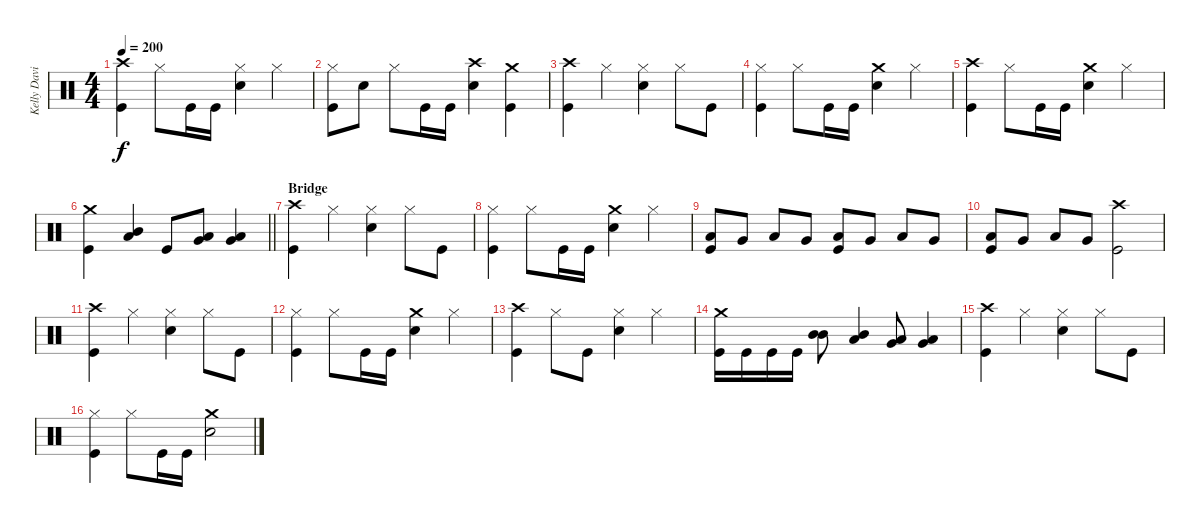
\track ("Kelly David Smith" "Kelly Davi") {instrument percussion}
\staff {score}
\articulation defaults
\ts (4 4)
\tempo 200
\clef neutral
\ks c
("Crash high (hit)" "Kick (hit)").4{dy f} "Hi-Hat (closed)".8 "Kick (hit)".16 "Kick (hit)".16 ("Hi-Hat (closed)" "Electric Snare (hit)").4 "Hi-Hat (closed)".4 |
("Hi-Hat (closed)" "Kick (hit)").8 "Electric Snare (hit)".8 "Hi-Hat (closed)".8 "Kick (hit)".16 "Kick (hit)".16 ("Crash high (hit)" "Electric Snare (hit)").4 ("Crash medium (hit)" "Kick (hit)").4 |
("Crash high (hit)" "Kick (hit)").4 "Hi-Hat (closed)".4 ("Hi-Hat (closed)" "Electric Snare (hit)").4 "Hi-Hat (closed)".8 "Kick (hit)".8 |
("Hi-Hat (closed)" "Kick (hit)").4 "Hi-Hat (closed)".8 "Kick (hit)".16 "Kick (hit)".16 ("Crash medium (hit)" "Electric Snare (hit)").4 "Hi-Hat (closed)".4 |
("Crash high (hit)" "Kick (hit)").4 "Hi-Hat (closed)".8 "Kick (hit)".16 "Kick (hit)".16 ("Crash medium (hit)" "Electric Snare (hit)").4 "Hi-Hat (closed)".4 |
\barLineRight lightlight
("Crash medium (hit)" "Kick (hit)").4 ("Mid Tom (hit)" "Low Tom (hit)").4 "Kick (hit)".8 ("Low Tom (hit)" "Very Low Tom (hit)").8 ("Very Low Tom (hit)" "Low Floor Tom (hit)").4 |
\section ("" "Bridge")
("Crash high (hit)" "Kick (hit)").4 "Hi-Hat (closed)".4 ("Hi-Hat (closed)" "Electric Snare (hit)").4 "Hi-Hat (closed)".8 "Kick (hit)".8 |
("Hi-Hat (closed)" "Kick (hit)").4 "Hi-Hat (closed)".8 "Kick (hit)".16 "Kick (hit)".16 ("Crash medium (hit)" "Electric Snare (hit)").4 "Hi-Hat (closed)".4 |
("Low Tom (hit)" "Kick (hit)").8 "Very Low Tom (hit)".8 "Low Floor Tom (hit)".8 "Very Low Tom (hit)".8 ("Low Tom (hit)" "Kick (hit)").8 "Very Low Tom (hit)".8 "Low Floor Tom (hit)".8 "Very Low Tom (hit)".8 |
("Low Floor Tom (hit)" "Kick (hit)").8 "Very Low Tom (hit)".8 "Low Tom (hit)".8 "Very Low Tom (hit)".8 ("Crash high (hit)" "Kick (hit)").2 |
("Crash high (hit)" "Kick (hit)").4 "Hi-Hat (closed)".4 ("Hi-Hat (closed)" "Electric Snare (hit)").4 "Hi-Hat (closed)".8 "Kick (hit)".8 |
("Hi-Hat (closed)" "Kick (hit)").4 "Hi-Hat (closed)".8 "Kick (hit)".16 "Kick (hit)".16 ("Crash medium (hit)" "Electric Snare (hit)").4 "Hi-Hat (closed)".4 |
("Crash high (hit)" "Kick (hit)").4 "Hi-Hat (closed)".8 "Kick (hit)".8 ("Hi-Hat (closed)" "Electric Snare (hit)").4 "Hi-Hat (closed)".4 |
("Crash medium (hit)" "Kick (hit)").16 "Kick (hit)".16 "Kick (hit)".16 "Kick (hit)".16 ("Mid Tom (hit)" "Mid Tom (hit)").8 ("Mid Tom (hit)" "Low Tom (hit)").4 ("Low Tom (hit)" "Very Low Tom (hit)").8 ("Very Low Tom (hit)" "Low Floor Tom (hit)").4 |
("Crash high (hit)" "Kick (hit)").4 "Hi-Hat (closed)".4 ("Hi-Hat (closed)" "Electric Snare (hit)").4 "Hi-Hat (closed)".8 "Kick (hit)".8 |
("Hi-Hat (closed)" "Kick (hit)").4 "Hi-Hat (closed)".8 "Kick (hit)".16 "Kick (hit)".16 ("Crash medium (hit)" "Electric Snare (hit)").2
